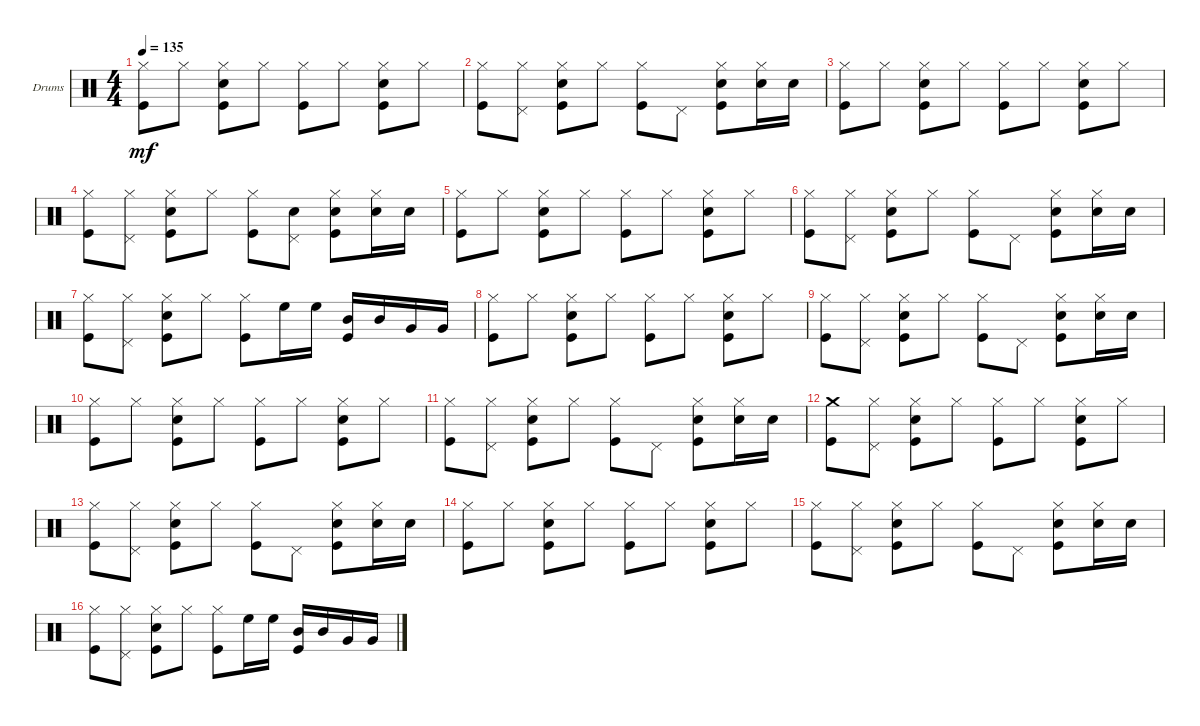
\bracketExtendMode groupsimilarinstruments
\firstSystemTrackNameOrientation horizontal
\otherSystemsTrackNameOrientation horizontal
\track ("Drumkit" "Drums") {instrument percussion}
\staff {score}
\articulation defaults
\ts (4 4)
\tempo 135
\clef neutral
\ks c
("Kick (hit)" "Hi-Hat (closed)").8{dy mf} "Hi-Hat (closed)".8 ("Hi-Hat (closed)" "Snare (hit) 2" "Kick (hit)").8 "Hi-Hat (closed)".8 ("Kick (hit)" "Hi-Hat (closed)").8 "Hi-Hat (closed)".8 ("Snare (hit) 2" "Hi-Hat (closed)" "Kick (hit)").8 "Hi-Hat (closed)".8 |
("Kick (hit)" "Hi-Hat (closed)").8 ("Hi-Hat (closed)" "Pedal Hi-Hat (hit)").8 ("Snare (hit) 2" "Hi-Hat (closed)" "Kick (hit)").8 "Hi-Hat (closed)".8 ("Kick (hit)" "Hi-Hat (closed)").8 "Pedal Hi-Hat (hit)".8 ("Kick (hit)" "Snare (hit) 2" "Hi-Hat (closed)").8 ("Hi-Hat (closed)" "Snare (hit) 2").16 "Snare (hit) 2".16 |
("Hi-Hat (closed)" "Kick (hit)").8 "Hi-Hat (closed)".8 ("Snare (hit) 2" "Hi-Hat (closed)" "Kick (hit)").8 "Hi-Hat (closed)".8 ("Hi-Hat (closed)" "Kick (hit)").8 "Hi-Hat (closed)".8 ("Snare (hit) 2" "Hi-Hat (closed)" "Kick (hit)").8 "Hi-Hat (closed)".8 |
("Kick (hit)" "Hi-Hat (closed)").8 ("Hi-Hat (closed)" "Pedal Hi-Hat (hit)").8 ("Snare (hit) 2" "Kick (hit)" "Hi-Hat (closed)").8 "Hi-Hat (closed)".8 ("Hi-Hat (closed)" "Kick (hit)").8 ("Snare (hit) 2" "Pedal Hi-Hat (hit)").8 ("Snare (hit) 2" "Hi-Hat (closed)" "Kick (hit)").8 ("Hi-Hat (closed)" "Snare (hit) 2").16 "Snare (hit) 2".16 |
("Hi-Hat (closed)" "Kick (hit)").8 "Hi-Hat (closed)".8 ("Snare (hit) 2" "Kick (hit)" "Hi-Hat (closed)").8 "Hi-Hat (closed)".8 ("Hi-Hat (closed)" "Kick (hit)").8 "Hi-Hat (closed)".8 ("Snare (hit) 2" "Hi-Hat (closed)" "Kick (hit)").8 "Hi-Hat (closed)".8 |
("Kick (hit)" "Hi-Hat (closed)").8 ("Pedal Hi-Hat (hit)" "Hi-Hat (closed)").8 ("Hi-Hat (closed)" "Snare (hit) 2" "Kick (hit)").8 "Hi-Hat (closed)".8 ("Kick (hit)" "Hi-Hat (closed)").8 "Pedal Hi-Hat (hit)".8 ("Snare (hit) 2" "Hi-Hat (closed)" "Kick (hit)").8 ("Hi-Hat (closed)" "Snare (hit) 2").16 "Snare (hit) 2".16 |
("Kick (hit)" "Hi-Hat (closed)").8 ("Hi-Hat (closed)" "Pedal Hi-Hat (hit)").8 ("Hi-Hat (closed)" "Snare (hit) 2" "Kick (hit)").8 "Hi-Hat (closed)".8 ("Kick (hit)" "Hi-Hat (closed)").8 "High Floor Tom (hit)".16 "High Floor Tom (hit)".16 ("Mid Tom (hit)" "Kick (hit)").16 "Mid Tom (hit)".16 "Very Low Tom (hit)".16 "Very Low Tom (hit)".16 |
("Hi-Hat (closed)" "Kick (hit)").8 "Hi-Hat (closed)".8 ("Snare (hit) 2" "Kick (hit)" "Hi-Hat (closed)").8 "Hi-Hat (closed)".8 ("Hi-Hat (closed)" "Kick (hit)").8 "Hi-Hat (closed)".8 ("Snare (hit) 2" "Hi-Hat (closed)" "Kick (hit)").8 "Hi-Hat (closed)".8 |
("Hi-Hat (closed)" "Kick (hit)").8 ("Hi-Hat (closed)" "Pedal Hi-Hat (hit)").8 ("Snare (hit) 2" "Kick (hit)" "Hi-Hat (closed)").8 "Hi-Hat (closed)".8 ("Hi-Hat (closed)" "Kick (hit)").8 "Pedal Hi-Hat (hit)".8 ("Snare (hit) 2" "Hi-Hat (closed)" "Kick (hit)").8 ("Hi-Hat (closed)" "Snare (hit) 2").16 "Snare (hit) 2".16 |
("Kick (hit)" "Hi-Hat (closed)").8 "Hi-Hat (closed)".8 ("Kick (hit)" "Snare (hit) 2" "Hi-Hat (closed)").8 "Hi-Hat (closed)".8 ("Kick (hit)" "Hi-Hat (closed)").8 "Hi-Hat (closed)".8 ("Snare (hit) 2" "Hi-Hat (closed)" "Kick (hit)").8 "Hi-Hat (closed)".8 |
("Kick (hit)" "Hi-Hat (closed)").8 ("Hi-Hat (closed)" "Pedal Hi-Hat (hit)").8 ("Hi-Hat (closed)" "Kick (hit)" "Snare (hit) 2").8 "Hi-Hat (closed)".8 ("Hi-Hat (closed)" "Kick (hit)").8 "Pedal Hi-Hat (hit)".8 ("Snare (hit) 2" "Hi-Hat (closed)" "Kick (hit)").8 ("Hi-Hat (closed)" "Snare (hit) 2").16 "Snare (hit) 2".16 |
("Crash medium (hit)" "Kick (hit)").8 ("Pedal Hi-Hat (hit)" "Hi-Hat (closed)").8 ("Hi-Hat (closed)" "Snare (hit) 2" "Kick (hit)").8 "Hi-Hat (closed)".8 ("Hi-Hat (closed)" "Kick (hit)").8 "Hi-Hat (closed)".8 ("Snare (hit) 2" "Hi-Hat (closed)" "Kick (hit)").8 "Hi-Hat (closed)".8 |
("Kick (hit)" "Hi-Hat (closed)").8 ("Hi-Hat (closed)" "Pedal Hi-Hat (hit)").8 ("Kick (hit)" "Hi-Hat (closed)" "Snare (hit) 2").8 "Hi-Hat (closed)".8 ("Kick (hit)" "Hi-Hat (closed)").8 "Pedal Hi-Hat (hit)".8 ("Hi-Hat (closed)" "Snare (hit) 2" "Kick (hit)").8 ("Snare (hit) 2" "Hi-Hat (closed)").16 "Snare (hit) 2".16 |
("Kick (hit)" "Hi-Hat (closed)").8 "Hi-Hat (closed)".8 ("Hi-Hat (closed)" "Kick (hit)" "Snare (hit) 2").8 "Hi-Hat (closed)".8 ("Kick (hit)" "Hi-Hat (closed)").8 "Hi-Hat (closed)".8 ("Snare (hit) 2" "Hi-Hat (closed)" "Kick (hit)").8 "Hi-Hat (closed)".8 |
("Hi-Hat (closed)" "Kick (hit)").8 ("Hi-Hat (closed)" "Pedal Hi-Hat (hit)").8 ("Snare (hit) 2" "Hi-Hat (closed)" "Kick (hit)").8 "Hi-Hat (closed)".8 ("Kick (hit)" "Hi-Hat (closed)").8 "Pedal Hi-Hat (hit)".8 ("Snare (hit) 2" "Hi-Hat (closed)" "Kick (hit)").8 ("Hi-Hat (closed)" "Snare (hit) 2").16 "Snare (hit) 2".16 |
("Kick (hit)" "Hi-Hat (closed)").8 ("Pedal Hi-Hat (hit)" "Hi-Hat (closed)").8 ("Kick (hit)" "Snare (hit) 2" "Hi-Hat (closed)").8 "Hi-Hat (closed)".8 ("Kick (hit)" "Hi-Hat (closed)").8 "High Floor Tom (hit)".16 "High Floor Tom (hit)".16 ("Kick (hit)" "Mid Tom (hit)").16 "Mid Tom (hit)".16 "Very Low Tom (hit)".16 "Very Low Tom (hit)".16
